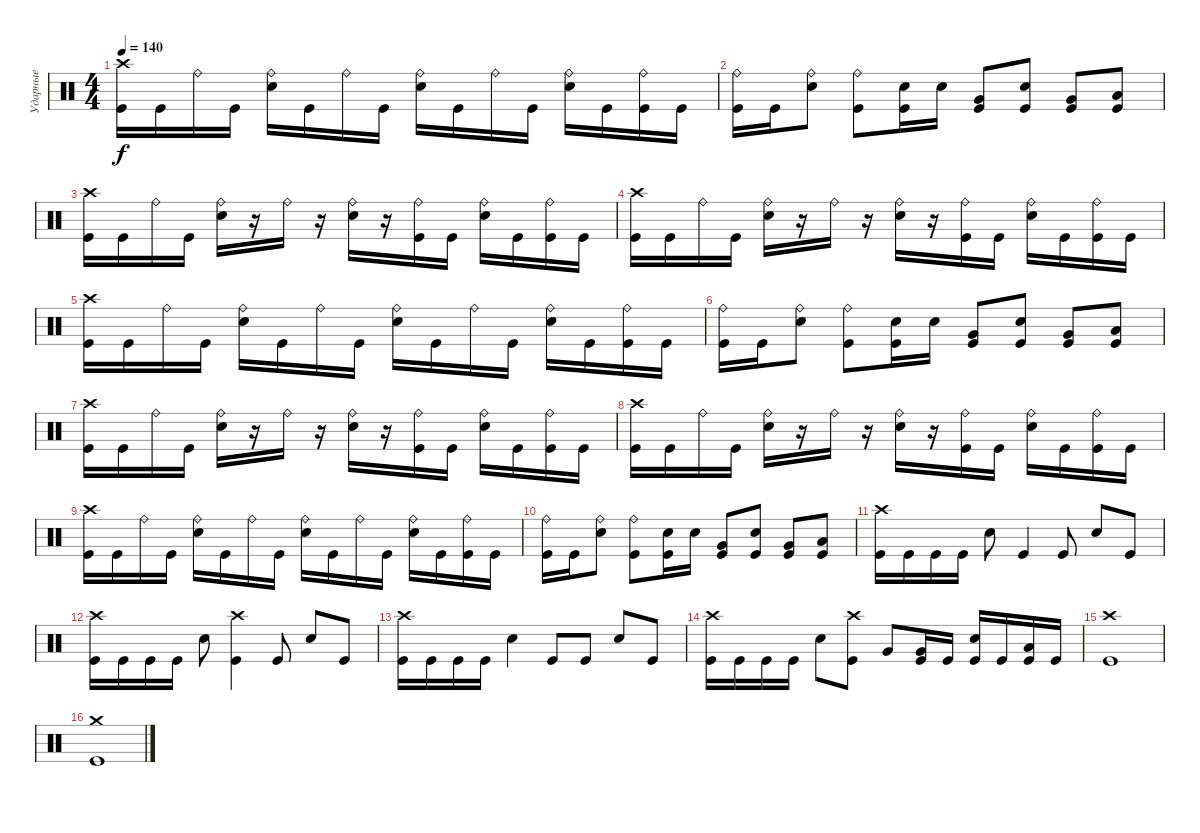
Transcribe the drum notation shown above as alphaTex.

\track ("Ударные" "Ударные") {instrument percussion}
\staff {score}
\articulation defaults
\ts (4 4)
\tempo 140
\clef neutral
\ks c
("Crash high (hit)" "Kick (hit)").16{dy f} "Kick (hit)".16 "Ride (bell)".16 "Kick (hit)".16 ("Ride (bell)" "Electric Snare (hit)").16 "Kick (hit)".16 "Ride (bell)".16 "Kick (hit)".16 ("Ride (bell)" "Electric Snare (hit)").16 "Kick (hit)".16 "Ride (bell)".16 "Kick (hit)".16 ("Ride (bell)" "Electric Snare (hit)").16 "Kick (hit)".16 ("Ride (bell)" "Kick (hit)").16 "Kick (hit)".16 |
("Ride (bell)" "Kick (hit)").16 "Kick (hit)".16 ("Ride (bell)" "Electric Snare (hit)").8 ("Ride (bell)" "Kick (hit)").8 ("Electric Snare (hit)" "Kick (hit)").16 "Electric Snare (hit)".16 ("Very Low Tom (hit)" "Kick (hit)").8 ("Electric Snare (hit)" "Kick (hit)").8 ("Very Low Tom (hit)" "Kick (hit)").8 ("Low Tom (hit)" "Kick (hit)").8 |
("Crash high (hit)" "Kick (hit)").16 "Kick (hit)".16 "Ride (bell)".16 "Kick (hit)".16 ("Ride (bell)" "Electric Snare (hit)").16 r.16 "Ride (bell)".16 r.16 ("Ride (bell)" "Electric Snare (hit)").16 r.16 ("Ride (bell)" "Kick (hit)").16 "Kick (hit)".16 ("Ride (bell)" "Electric Snare (hit)").16 "Kick (hit)".16 ("Ride (bell)" "Kick (hit)").16 "Kick (hit)".16 |
("Crash high (hit)" "Kick (hit)").16 "Kick (hit)".16 "Ride (bell)".16 "Kick (hit)".16 ("Ride (bell)" "Electric Snare (hit)").16 r.16 "Ride (bell)".16 r.16 ("Ride (bell)" "Electric Snare (hit)").16 r.16 ("Ride (bell)" "Kick (hit)").16 "Kick (hit)".16 ("Ride (bell)" "Electric Snare (hit)").16 "Kick (hit)".16 ("Ride (bell)" "Kick (hit)").16 "Kick (hit)".16 |
("Crash high (hit)" "Kick (hit)").16 "Kick (hit)".16 "Ride (bell)".16 "Kick (hit)".16 ("Ride (bell)" "Electric Snare (hit)").16 "Kick (hit)".16 "Ride (bell)".16 "Kick (hit)".16 ("Ride (bell)" "Electric Snare (hit)").16 "Kick (hit)".16 "Ride (bell)".16 "Kick (hit)".16 ("Ride (bell)" "Electric Snare (hit)").16 "Kick (hit)".16 ("Ride (bell)" "Kick (hit)").16 "Kick (hit)".16 |
("Ride (bell)" "Kick (hit)").16 "Kick (hit)".16 ("Ride (bell)" "Electric Snare (hit)").8 ("Ride (bell)" "Kick (hit)").8 ("Electric Snare (hit)" "Kick (hit)").16 "Electric Snare (hit)".16 ("Very Low Tom (hit)" "Kick (hit)").8 ("Electric Snare (hit)" "Kick (hit)").8 ("Very Low Tom (hit)" "Kick (hit)").8 ("Low Tom (hit)" "Kick (hit)").8 |
("Crash high (hit)" "Kick (hit)").16 "Kick (hit)".16 "Ride (bell)".16 "Kick (hit)".16 ("Ride (bell)" "Electric Snare (hit)").16 r.16 "Ride (bell)".16 r.16 ("Ride (bell)" "Electric Snare (hit)").16 r.16 ("Ride (bell)" "Kick (hit)").16 "Kick (hit)".16 ("Ride (bell)" "Electric Snare (hit)").16 "Kick (hit)".16 ("Ride (bell)" "Kick (hit)").16 "Kick (hit)".16 |
("Crash high (hit)" "Kick (hit)").16 "Kick (hit)".16 "Ride (bell)".16 "Kick (hit)".16 ("Ride (bell)" "Electric Snare (hit)").16 r.16 "Ride (bell)".16 r.16 ("Ride (bell)" "Electric Snare (hit)").16 r.16 ("Ride (bell)" "Kick (hit)").16 "Kick (hit)".16 ("Ride (bell)" "Electric Snare (hit)").16 "Kick (hit)".16 ("Ride (bell)" "Kick (hit)").16 "Kick (hit)".16 |
("Crash high (hit)" "Kick (hit)").16 "Kick (hit)".16 "Ride (bell)".16 "Kick (hit)".16 ("Ride (bell)" "Electric Snare (hit)").16 "Kick (hit)".16 "Ride (bell)".16 "Kick (hit)".16 ("Ride (bell)" "Electric Snare (hit)").16 "Kick (hit)".16 "Ride (bell)".16 "Kick (hit)".16 ("Ride (bell)" "Electric Snare (hit)").16 "Kick (hit)".16 ("Ride (bell)" "Kick (hit)").16 "Kick (hit)".16 |
("Ride (bell)" "Kick (hit)").16 "Kick (hit)".16 ("Ride (bell)" "Electric Snare (hit)").8 ("Ride (bell)" "Kick (hit)").8 ("Electric Snare (hit)" "Kick (hit)").16 "Electric Snare (hit)".16 ("Very Low Tom (hit)" "Kick (hit)").8 ("Electric Snare (hit)" "Kick (hit)").8 ("Very Low Tom (hit)" "Kick (hit)").8 ("Low Tom (hit)" "Kick (hit)").8 |
("Crash high (hit)" "Kick (hit)").16 "Kick (hit)".16 "Kick (hit)".16 "Kick (hit)".16 "Electric Snare (hit)".8 "Kick (hit)".4 "Kick (hit)".8 "Electric Snare (hit)".8 "Kick (hit)".8 |
("Crash high (hit)" "Kick (hit)").16 "Kick (hit)".16 "Kick (hit)".16 "Kick (hit)".16 "Electric Snare (hit)".8 ("Crash high (hit)" "Kick (hit)").4 "Kick (hit)".8 "Electric Snare (hit)".8 "Kick (hit)".8 |
("Crash high (hit)" "Kick (hit)").16 "Kick (hit)".16 "Kick (hit)".16 "Kick (hit)".16 "Electric Snare (hit)".4 "Kick (hit)".8 "Kick (hit)".8 "Electric Snare (hit)".8 "Kick (hit)".8 |
("Crash high (hit)" "Kick (hit)").16 "Kick (hit)".16 "Kick (hit)".16 "Kick (hit)".16 "Electric Snare (hit)".8 ("Crash high (hit)" "Kick (hit)").8 "Very Low Tom (hit)".8 ("Very Low Tom (hit)" "Kick (hit)").16 "Kick (hit)".16 ("Electric Snare (hit)" "Kick (hit)").16 "Kick (hit)".16 ("Low Tom (hit)" "Kick (hit)").16 "Kick (hit)".16 |
("Crash high (hit)" "Kick (hit)").1 |
("Crash medium (hit)" "Kick (hit)").1
